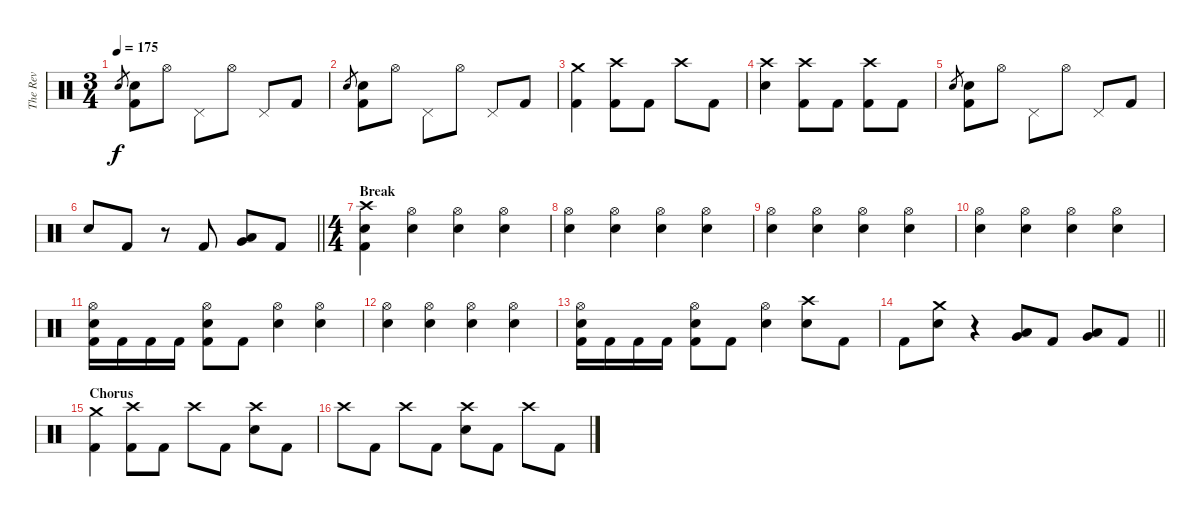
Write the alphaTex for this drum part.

\track ("The Rev" "The Rev") {instrument percussion}
\staff {score}
\articulation defaults
\ts (3 4)
\tempo 175
\clef neutral
\ks c "Snare (hit) 2".8{gr dy f}
("Snare (hit) 2" "Kick (hit) 2").8 "Hi-Hat (open)".8 "Pedal Hi-Hat (hit)".8 "Hi-Hat (open)".8 "Pedal Hi-Hat (hit)".8 "Kick (hit) 2".8 |
"Snare (hit) 2".8{gr} ("Snare (hit) 2" "Kick (hit) 2").8 "Hi-Hat (open)".8 "Pedal Hi-Hat (hit)".8 "Hi-Hat (open)".8 "Pedal Hi-Hat (hit)".8 "Kick (hit) 2".8 |
("Crash medium (hit)" "Kick (hit) 2").4 ("Crash high (hit)" "Kick (hit) 2").8 "Kick (hit) 2".8 "Crash high (hit)".8 "Kick (hit) 2".8 |
("Crash high (hit)" "Snare (hit) 2").4 ("Crash high (hit)" "Kick (hit) 2").8 "Kick (hit) 2".8 ("Crash high (hit)" "Kick (hit) 2").8 "Kick (hit) 2".8 |
"Snare (hit) 2".8{gr} ("Snare (hit) 2" "Kick (hit) 2").8 "Hi-Hat (open)".8 "Pedal Hi-Hat (hit)".8 "Hi-Hat (open)".8 "Pedal Hi-Hat (hit)".8 "Kick (hit) 2".8 |
\barLineRight lightlight "Snare (hit) 2".8 "Kick (hit) 2".8
r.8 "Kick (hit) 2".8 ("Low Tom (hit)" "Very Low Tom (hit)").8 "Kick (hit) 2".8 |
\ts (4 4)
\section ("" "Break")
("Crash high (hit)" "Snare (hit) 2" "Kick (hit) 2").4 ("Hi-Hat (open)" "Snare (hit) 2").4 ("Hi-Hat (open)" "Snare (hit) 2").4 ("Hi-Hat (open)" "Snare (hit) 2").4 |
("Hi-Hat (open)" "Snare (hit) 2").4 ("Hi-Hat (open)" "Snare (hit) 2").4 ("Hi-Hat (open)" "Snare (hit) 2").4 ("Hi-Hat (open)" "Snare (hit) 2").4 |
("Hi-Hat (open)" "Snare (hit) 2").4 ("Hi-Hat (open)" "Snare (hit) 2").4 ("Hi-Hat (open)" "Snare (hit) 2").4 ("Hi-Hat (open)" "Snare (hit) 2").4 |
("Hi-Hat (open)" "Snare (hit) 2").4 ("Hi-Hat (open)" "Snare (hit) 2").4 ("Hi-Hat (open)" "Snare (hit) 2").4 ("Hi-Hat (open)" "Snare (hit) 2").4 |
("Hi-Hat (open)" "Snare (hit) 2" "Kick (hit) 2").16 "Kick (hit) 2".16 "Kick (hit) 2".16 "Kick (hit) 2".16 ("Hi-Hat (open)" "Snare (hit) 2" "Kick (hit) 2").8 "Kick (hit) 2".8 ("Hi-Hat (open)" "Snare (hit) 2").4 ("Hi-Hat (open)" "Snare (hit) 2").4 |
("Hi-Hat (open)" "Snare (hit) 2").4 ("Hi-Hat (open)" "Snare (hit) 2").4 ("Hi-Hat (open)" "Snare (hit) 2").4 ("Hi-Hat (open)" "Snare (hit) 2").4 |
("Hi-Hat (open)" "Snare (hit) 2" "Kick (hit) 2").16 "Kick (hit) 2".16 "Kick (hit) 2".16 "Kick (hit) 2".16 ("Hi-Hat (open)" "Snare (hit) 2" "Kick (hit) 2").8 "Kick (hit) 2".8 ("Hi-Hat (open)" "Snare (hit) 2").4 ("Crash high (hit)" "Snare (hit) 2").8 "Kick (hit) 2".8 |
\barLineRight lightlight "Kick (hit) 2".8
("Crash medium (hit)" "Snare (hit) 2").8 r.4 ("Low Tom (hit)" "Very Low Tom (hit)").8 "Kick (hit) 2".8 ("Very Low Tom (hit)" "Low Floor Tom (hit)").8 "Kick (hit) 2".8 |
\section ("" "Chorus")
("Crash medium (hit)" "Kick (hit) 2").4 ("Crash high (hit)" "Kick (hit) 2").8 "Kick (hit) 2".8 "Crash high (hit)".8 "Kick (hit) 2".8 ("Crash high (hit)" "Snare (hit) 2").8 "Kick (hit) 2".8 |
"Crash high (hit)".8 "Kick (hit) 2".8 "Crash high (hit)".8 "Kick (hit) 2".8 ("Crash high (hit)" "Snare (hit) 2").8 "Kick (hit) 2".8 "Crash high (hit)".8 "Kick (hit) 2".8
